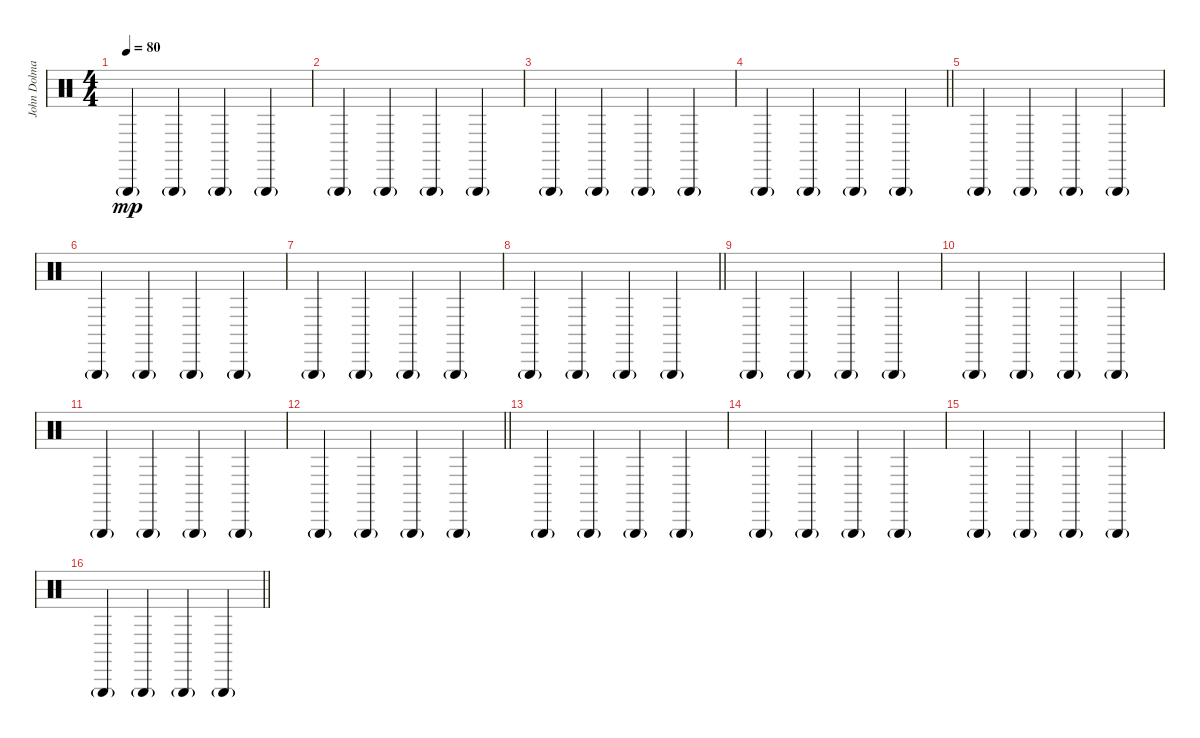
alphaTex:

\track ("John Dolmayan (extra)" "John Dolma") {instrument percussion}
\staff
\articulation defaults
\ts (4 4)
\tempo 80
\clef neutral
\ks c "Triangle (hit)"{g}.4{dy mp} "Triangle (hit)"{g}.4 "Triangle (hit)"{g}.4 "Triangle (hit)"{g}.4
|
"Triangle (hit)"{g}.4 "Triangle (hit)"{g}.4 "Triangle (hit)"{g}.4 "Triangle (hit)"{g}.4 |
"Triangle (hit)"{g}.4 "Triangle (hit)"{g}.4 "Triangle (hit)"{g}.4 "Triangle (hit)"{g}.4 |
\barLineRight lightlight "Triangle (hit)"{g}.4 "Triangle (hit)"{g}.4 "Triangle (hit)"{g}.4 "Triangle (hit)"{g}.4
|
"Triangle (hit)"{g}.4 "Triangle (hit)"{g}.4 "Triangle (hit)"{g}.4 "Triangle (hit)"{g}.4 |
"Triangle (hit)"{g}.4 "Triangle (hit)"{g}.4 "Triangle (hit)"{g}.4 "Triangle (hit)"{g}.4 |
"Triangle (hit)"{g}.4 "Triangle (hit)"{g}.4 "Triangle (hit)"{g}.4 "Triangle (hit)"{g}.4 |
\barLineRight lightlight "Triangle (hit)"{g}.4 "Triangle (hit)"{g}.4 "Triangle (hit)"{g}.4 "Triangle (hit)"{g}.4
|
"Triangle (hit)"{g}.4 "Triangle (hit)"{g}.4 "Triangle (hit)"{g}.4 "Triangle (hit)"{g}.4 |
"Triangle (hit)"{g}.4 "Triangle (hit)"{g}.4 "Triangle (hit)"{g}.4 "Triangle (hit)"{g}.4 |
"Triangle (hit)"{g}.4 "Triangle (hit)"{g}.4 "Triangle (hit)"{g}.4 "Triangle (hit)"{g}.4 |
\barLineRight lightlight "Triangle (hit)"{g}.4 "Triangle (hit)"{g}.4 "Triangle (hit)"{g}.4 "Triangle (hit)"{g}.4
|
"Triangle (hit)"{g}.4 "Triangle (hit)"{g}.4 "Triangle (hit)"{g}.4 "Triangle (hit)"{g}.4 |
"Triangle (hit)"{g}.4 "Triangle (hit)"{g}.4 "Triangle (hit)"{g}.4 "Triangle (hit)"{g}.4 |
"Triangle (hit)"{g}.4 "Triangle (hit)"{g}.4 "Triangle (hit)"{g}.4 "Triangle (hit)"{g}.4 |
\barLineRight lightlight "Triangle (hit)"{g}.4 "Triangle (hit)"{g}.4 "Triangle (hit)"{g}.4 "Triangle (hit)"{g}.4
